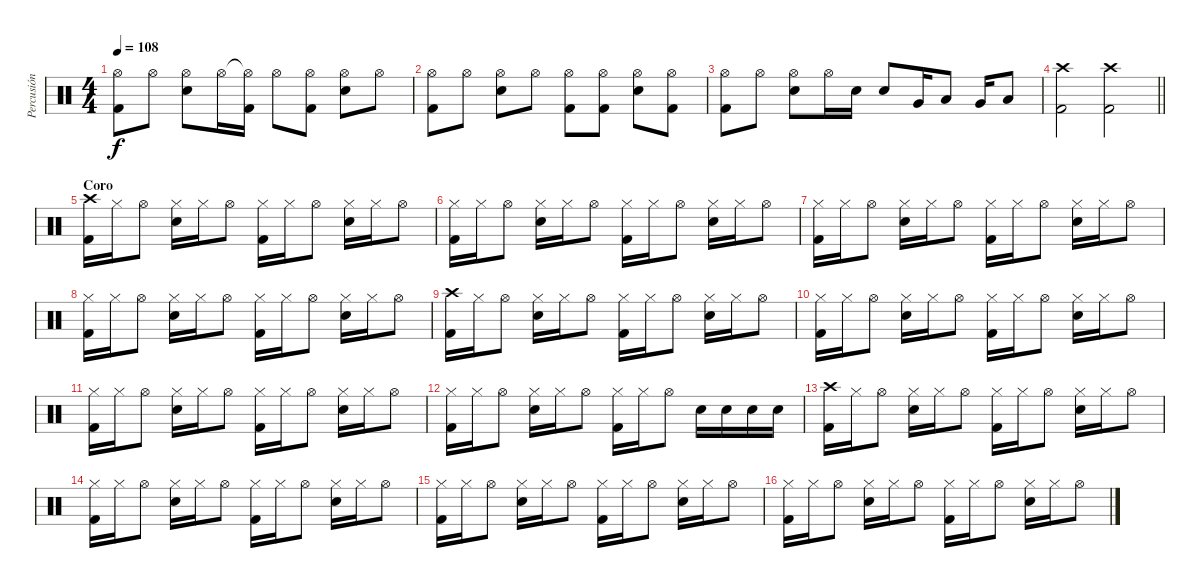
\track ("Percusión" "Percusión") {instrument percussion}
\staff {score}
\articulation defaults
\ts (4 4)
\tempo 108
\clef neutral
\ks c
("Hi-Hat (open)" "Kick (hit) 2").8{dy f} "Hi-Hat (open)".8 ("Hi-Hat (open)" "Electric Snare (hit)").8 "Hi-Hat (open)".16 ("Hi-Hat (open)"{t} "Kick (hit) 2").16 "Hi-Hat (open)".8 ("Hi-Hat (open)" "Kick (hit) 2").8 ("Hi-Hat (open)" "Electric Snare (hit)").8 "Hi-Hat (open)".8 |
("Hi-Hat (open)" "Kick (hit) 2").8 "Hi-Hat (open)".8 ("Hi-Hat (open)" "Electric Snare (hit)").8 "Hi-Hat (open)".8 ("Hi-Hat (open)" "Kick (hit) 2").8 ("Hi-Hat (open)" "Kick (hit) 2").8 ("Hi-Hat (open)" "Electric Snare (hit)").8 ("Hi-Hat (open)" "Kick (hit) 2").8 |
("Hi-Hat (open)" "Kick (hit) 2").8 "Hi-Hat (open)".8 ("Hi-Hat (open)" "Electric Snare (hit)").8 "Hi-Hat (open)".16 "Electric Snare (hit)".16 "Electric Snare (hit)".8 "Very Low Tom (hit)".16 "Low Tom (hit)".8 "Very Low Tom (hit)".16 "Low Tom (hit)".8 |
\barLineRight lightlight
("Crash high (hit)" "Kick (hit) 2").2 ("Crash high (hit)" "Kick (hit) 2").2 |
\section ("" "Coro")
("Crash high (hit)" "Kick (hit) 2").16 "Hi-Hat (closed)".16 "Hi-Hat (open)".8 ("Hi-Hat (closed)" "Electric Snare (hit)").16 "Hi-Hat (closed)".16 "Hi-Hat (open)".8 ("Hi-Hat (closed)" "Kick (hit) 2").16 "Hi-Hat (closed)".16 "Hi-Hat (open)".8 ("Hi-Hat (closed)" "Electric Snare (hit)").16 "Hi-Hat (closed)".16 "Hi-Hat (open)".8 |
("Hi-Hat (closed)" "Kick (hit) 2").16 "Hi-Hat (closed)".16 "Hi-Hat (open)".8 ("Hi-Hat (closed)" "Electric Snare (hit)").16 "Hi-Hat (closed)".16 "Hi-Hat (open)".8 ("Hi-Hat (closed)" "Kick (hit) 2").16 "Hi-Hat (closed)".16 "Hi-Hat (open)".8 ("Hi-Hat (closed)" "Electric Snare (hit)").16 "Hi-Hat (closed)".16 "Hi-Hat (open)".8 |
("Hi-Hat (closed)" "Kick (hit) 2").16 "Hi-Hat (closed)".16 "Hi-Hat (open)".8 ("Hi-Hat (closed)" "Electric Snare (hit)").16 "Hi-Hat (closed)".16 "Hi-Hat (open)".8 ("Hi-Hat (closed)" "Kick (hit) 2").16 "Hi-Hat (closed)".16 "Hi-Hat (open)".8 ("Hi-Hat (closed)" "Electric Snare (hit)").16 "Hi-Hat (closed)".16 "Hi-Hat (open)".8 |
("Hi-Hat (closed)" "Kick (hit) 2").16 "Hi-Hat (closed)".16 "Hi-Hat (open)".8 ("Hi-Hat (closed)" "Electric Snare (hit)").16 "Hi-Hat (closed)".16 "Hi-Hat (open)".8 ("Hi-Hat (closed)" "Kick (hit) 2").16 "Hi-Hat (closed)".16 "Hi-Hat (open)".8 ("Hi-Hat (closed)" "Electric Snare (hit)").16 "Hi-Hat (closed)".16 "Hi-Hat (open)".8 |
("Crash high (hit)" "Kick (hit) 2").16 "Hi-Hat (closed)".16 "Hi-Hat (open)".8 ("Hi-Hat (closed)" "Electric Snare (hit)").16 "Hi-Hat (closed)".16 "Hi-Hat (open)".8 ("Hi-Hat (closed)" "Kick (hit) 2").16 "Hi-Hat (closed)".16 "Hi-Hat (open)".8 ("Hi-Hat (closed)" "Electric Snare (hit)").16 "Hi-Hat (closed)".16 "Hi-Hat (open)".8 |
("Hi-Hat (closed)" "Kick (hit) 2").16 "Hi-Hat (closed)".16 "Hi-Hat (open)".8 ("Hi-Hat (closed)" "Electric Snare (hit)").16 "Hi-Hat (closed)".16 "Hi-Hat (open)".8 ("Hi-Hat (closed)" "Kick (hit) 2").16 "Hi-Hat (closed)".16 "Hi-Hat (open)".8 ("Hi-Hat (closed)" "Electric Snare (hit)").16 "Hi-Hat (closed)".16 "Hi-Hat (open)".8 |
("Hi-Hat (closed)" "Kick (hit) 2").16 "Hi-Hat (closed)".16 "Hi-Hat (open)".8 ("Hi-Hat (closed)" "Electric Snare (hit)").16 "Hi-Hat (closed)".16 "Hi-Hat (open)".8 ("Hi-Hat (closed)" "Kick (hit) 2").16 "Hi-Hat (closed)".16 "Hi-Hat (open)".8 ("Hi-Hat (closed)" "Electric Snare (hit)").16 "Hi-Hat (closed)".16 "Hi-Hat (open)".8 |
("Hi-Hat (closed)" "Kick (hit) 2").16 "Hi-Hat (closed)".16 "Hi-Hat (open)".8 ("Hi-Hat (closed)" "Electric Snare (hit)").16 "Hi-Hat (closed)".16 "Hi-Hat (open)".8 ("Hi-Hat (closed)" "Kick (hit) 2").16 "Hi-Hat (closed)".16 "Hi-Hat (open)".8 "Electric Snare (hit)".16 "Electric Snare (hit)".16 "Electric Snare (hit)".16 "Electric Snare (hit)".16 |
("Crash high (hit)" "Kick (hit) 2").16 "Hi-Hat (closed)".16 "Hi-Hat (open)".8 ("Hi-Hat (closed)" "Electric Snare (hit)").16 "Hi-Hat (closed)".16 "Hi-Hat (open)".8 ("Hi-Hat (closed)" "Kick (hit) 2").16 "Hi-Hat (closed)".16 "Hi-Hat (open)".8 ("Hi-Hat (closed)" "Electric Snare (hit)").16 "Hi-Hat (closed)".16 "Hi-Hat (open)".8 |
("Hi-Hat (closed)" "Kick (hit) 2").16 "Hi-Hat (closed)".16 "Hi-Hat (open)".8 ("Hi-Hat (closed)" "Electric Snare (hit)").16 "Hi-Hat (closed)".16 "Hi-Hat (open)".8 ("Hi-Hat (closed)" "Kick (hit) 2").16 "Hi-Hat (closed)".16 "Hi-Hat (open)".8 ("Hi-Hat (closed)" "Electric Snare (hit)").16 "Hi-Hat (closed)".16 "Hi-Hat (open)".8 |
("Hi-Hat (closed)" "Kick (hit) 2").16 "Hi-Hat (closed)".16 "Hi-Hat (open)".8 ("Hi-Hat (closed)" "Electric Snare (hit)").16 "Hi-Hat (closed)".16 "Hi-Hat (open)".8 ("Hi-Hat (closed)" "Kick (hit) 2").16 "Hi-Hat (closed)".16 "Hi-Hat (open)".8 ("Hi-Hat (closed)" "Electric Snare (hit)").16 "Hi-Hat (closed)".16 "Hi-Hat (open)".8 |
("Hi-Hat (closed)" "Kick (hit) 2").16 "Hi-Hat (closed)".16 "Hi-Hat (open)".8 ("Hi-Hat (closed)" "Electric Snare (hit)").16 "Hi-Hat (closed)".16 "Hi-Hat (open)".8 ("Hi-Hat (closed)" "Kick (hit) 2").16 "Hi-Hat (closed)".16 "Hi-Hat (open)".8 ("Hi-Hat (closed)" "Electric Snare (hit)").16 "Hi-Hat (closed)".16 "Hi-Hat (open)".8
